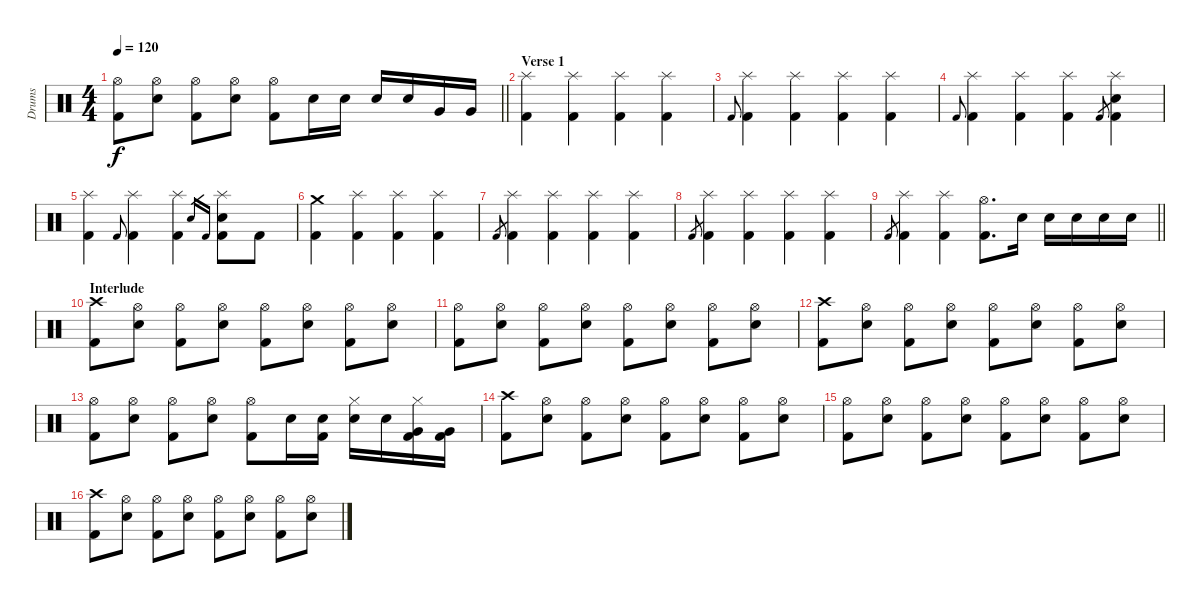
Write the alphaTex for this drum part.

\track ("Drums" "Drums") {instrument percussion}
\staff {score}
\articulation defaults
\ts (4 4)
\tempo 120
\clef neutral
\barLineRight lightlight
\ks c
("Hi-Hat (open)" "Kick (hit) 2").8{dy f} ("Hi-Hat (open)" "Electric Snare (hit)").8 ("Hi-Hat (open)" "Kick (hit) 2").8 ("Hi-Hat (open)" "Electric Snare (hit)").8 ("Hi-Hat (open)" "Kick (hit) 2").8 "Electric Snare (hit)".16 "Electric Snare (hit)".16 "Electric Snare (hit)".16 "Electric Snare (hit)".16 "Very Low Tom (hit)".16 "Very Low Tom (hit)".16 |
\section ("" "Verse 1")
("Splash (hit)" "Kick (hit) 2").4 ("Splash (hit)" "Kick (hit) 2").4 ("Splash (hit)" "Kick (hit) 2").4 ("Splash (hit)" "Kick (hit) 2").4 |
"Kick (hit) 2".8{gr onbeat} ("Splash (hit)" "Kick (hit) 2").4 ("Splash (hit)" "Kick (hit) 2").4 ("Splash (hit)" "Kick (hit) 2").4 ("Splash (hit)" "Kick (hit) 2").4 |
"Kick (hit) 2".8{gr onbeat} ("Splash (hit)" "Kick (hit) 2").4 ("Splash (hit)" "Kick (hit) 2").4 ("Splash (hit)" "Kick (hit) 2").4 "Kick (hit) 2".8{gr} ("Splash (hit)" "Electric Snare (hit)" "Kick (hit) 2").4 |
("Splash (hit)" "Kick (hit) 2").4 "Kick (hit) 2".8{gr onbeat} ("Splash (hit)" "Kick (hit) 2").4 ("Splash (hit)" "Kick (hit) 2").4 "Electric Snare (hit)".16{gr} "Kick (hit) 2".16{gr} ("Splash (hit)" "Electric Snare (hit)" "Kick (hit) 2").8 "Kick (hit) 2".8 |
("Crash medium (hit)" "Kick (hit) 2").4 ("Splash (hit)" "Kick (hit) 2").4 ("Splash (hit)" "Kick (hit) 2").4 ("Splash (hit)" "Kick (hit) 2").4 |
"Kick (hit) 2".8{gr} ("Splash (hit)" "Kick (hit) 2").4 ("Splash (hit)" "Kick (hit) 2").4 ("Splash (hit)" "Kick (hit) 2").4 ("Splash (hit)" "Kick (hit) 2").4 |
"Kick (hit) 2".8{gr} ("Splash (hit)" "Kick (hit) 2").4 ("Splash (hit)" "Kick (hit) 2").4 ("Splash (hit)" "Kick (hit) 2").4 ("Splash (hit)" "Kick (hit) 2").4 |
\barLineRight lightlight "Kick (hit) 2".8{gr}
("Splash (hit)" "Kick (hit) 2").4 ("Splash (hit)" "Kick (hit) 2").4 ("Hi-Hat (open)" "Kick (hit) 2").8{d} "Electric Snare (hit)".16 "Electric Snare (hit)".16 "Electric Snare (hit)".16 "Electric Snare (hit)".16 "Electric Snare (hit)".16 |
\section ("" "Interlude")
("Crash high (hit)" "Kick (hit) 2").8 ("Hi-Hat (open)" "Electric Snare (hit)").8 ("Hi-Hat (open)" "Kick (hit) 2").8 ("Hi-Hat (open)" "Electric Snare (hit)").8 ("Hi-Hat (open)" "Kick (hit) 2").8 ("Hi-Hat (open)" "Electric Snare (hit)").8 ("Hi-Hat (open)" "Kick (hit) 2").8 ("Hi-Hat (open)" "Electric Snare (hit)").8 |
("Hi-Hat (open)" "Kick (hit) 2").8 ("Hi-Hat (open)" "Electric Snare (hit)").8 ("Hi-Hat (open)" "Kick (hit) 2").8 ("Hi-Hat (open)" "Electric Snare (hit)").8 ("Hi-Hat (open)" "Kick (hit) 2").8 ("Hi-Hat (open)" "Electric Snare (hit)").8 ("Hi-Hat (open)" "Kick (hit) 2").8 ("Hi-Hat (open)" "Electric Snare (hit)").8 |
("Crash high (hit)" "Kick (hit) 2").8 ("Hi-Hat (open)" "Electric Snare (hit)").8 ("Hi-Hat (open)" "Kick (hit) 2").8 ("Hi-Hat (open)" "Electric Snare (hit)").8 ("Hi-Hat (open)" "Kick (hit) 2").8 ("Hi-Hat (open)" "Electric Snare (hit)").8 ("Hi-Hat (open)" "Kick (hit) 2").8 ("Hi-Hat (open)" "Electric Snare (hit)").8 |
("Hi-Hat (open)" "Kick (hit) 2").8 ("Hi-Hat (open)" "Electric Snare (hit)").8 ("Hi-Hat (open)" "Kick (hit) 2").8 ("Hi-Hat (open)" "Electric Snare (hit)").8 ("Hi-Hat (open)" "Kick (hit) 2").8 "Electric Snare (hit)".16 ("Electric Snare (hit)" "Kick (hit) 2").16 ("Hi-Hat (closed)" "Electric Snare (hit)").16 "Electric Snare (hit)".16 ("Hi-Hat (closed)" "Very Low Tom (hit)" "Kick (hit) 2").16 ("Very Low Tom (hit)" "Kick (hit) 2").16 |
("Crash high (hit)" "Kick (hit) 2").8 ("Hi-Hat (open)" "Electric Snare (hit)").8 ("Hi-Hat (open)" "Kick (hit) 2").8 ("Hi-Hat (open)" "Electric Snare (hit)").8 ("Hi-Hat (open)" "Kick (hit) 2").8 ("Hi-Hat (open)" "Electric Snare (hit)").8 ("Hi-Hat (open)" "Kick (hit) 2").8 ("Hi-Hat (open)" "Electric Snare (hit)").8 |
("Hi-Hat (open)" "Kick (hit) 2").8 ("Hi-Hat (open)" "Electric Snare (hit)").8 ("Hi-Hat (open)" "Kick (hit) 2").8 ("Hi-Hat (open)" "Electric Snare (hit)").8 ("Hi-Hat (open)" "Kick (hit) 2").8 ("Hi-Hat (open)" "Electric Snare (hit)").8 ("Hi-Hat (open)" "Kick (hit) 2").8 ("Hi-Hat (open)" "Electric Snare (hit)").8 |
("Crash high (hit)" "Kick (hit) 2").8 ("Hi-Hat (open)" "Electric Snare (hit)").8 ("Hi-Hat (open)" "Kick (hit) 2").8 ("Hi-Hat (open)" "Electric Snare (hit)").8 ("Hi-Hat (open)" "Kick (hit) 2").8 ("Hi-Hat (open)" "Electric Snare (hit)").8 ("Hi-Hat (open)" "Kick (hit) 2").8 ("Hi-Hat (open)" "Electric Snare (hit)").8
